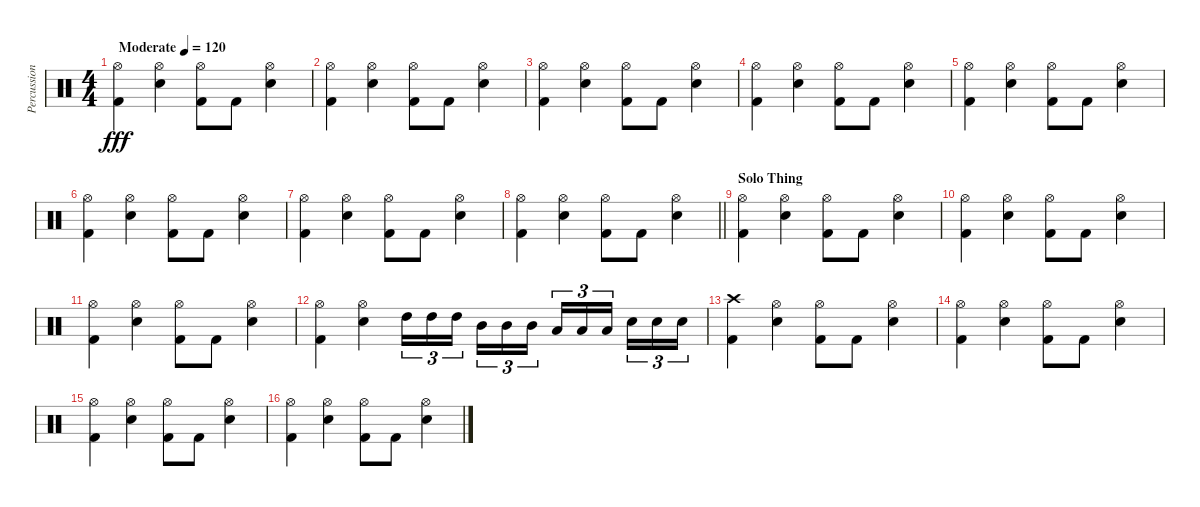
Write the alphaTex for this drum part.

\track ("Percussion" "Percussion") {instrument percussion}
\staff {score}
\articulation defaults
\ts (4 4)
\tempo (120 "Moderate")
\clef neutral
\ks c
("Hi-Hat (open)" "Kick (hit) 2").4{dy fff} ("Hi-Hat (open)" "Snare (hit) 2").4 ("Hi-Hat (open)" "Kick (hit) 2").8 "Kick (hit) 2".8 ("Hi-Hat (open)" "Snare (hit) 2").4 |
("Hi-Hat (open)" "Kick (hit) 2").4 ("Hi-Hat (open)" "Snare (hit) 2").4 ("Hi-Hat (open)" "Kick (hit) 2").8 "Kick (hit) 2".8 ("Hi-Hat (open)" "Snare (hit) 2").4 |
("Hi-Hat (open)" "Kick (hit) 2").4 ("Hi-Hat (open)" "Snare (hit) 2").4 ("Hi-Hat (open)" "Kick (hit) 2").8 "Kick (hit) 2".8 ("Hi-Hat (open)" "Snare (hit) 2").4 |
("Hi-Hat (open)" "Kick (hit) 2").4 ("Hi-Hat (open)" "Snare (hit) 2").4 ("Hi-Hat (open)" "Kick (hit) 2").8 "Kick (hit) 2".8 ("Hi-Hat (open)" "Snare (hit) 2").4 |
("Hi-Hat (open)" "Kick (hit) 2").4 ("Hi-Hat (open)" "Snare (hit) 2").4 ("Hi-Hat (open)" "Kick (hit) 2").8 "Kick (hit) 2".8 ("Hi-Hat (open)" "Snare (hit) 2").4 |
("Hi-Hat (open)" "Kick (hit) 2").4 ("Hi-Hat (open)" "Snare (hit) 2").4 ("Hi-Hat (open)" "Kick (hit) 2").8 "Kick (hit) 2".8 ("Hi-Hat (open)" "Snare (hit) 2").4 |
("Hi-Hat (open)" "Kick (hit) 2").4 ("Hi-Hat (open)" "Snare (hit) 2").4 ("Hi-Hat (open)" "Kick (hit) 2").8 "Kick (hit) 2".8 ("Hi-Hat (open)" "Snare (hit) 2").4 |
\barLineRight lightlight
("Hi-Hat (open)" "Kick (hit) 2").4 ("Hi-Hat (open)" "Snare (hit) 2").4 ("Hi-Hat (open)" "Kick (hit) 2").8 "Kick (hit) 2".8 ("Hi-Hat (open)" "Snare (hit) 2").4 |
\section ("" "Solo Thing")
("Hi-Hat (open)" "Kick (hit) 2").4 ("Hi-Hat (open)" "Snare (hit) 2").4 ("Hi-Hat (open)" "Kick (hit) 2").8 "Kick (hit) 2".8 ("Hi-Hat (open)" "Snare (hit) 2").4 |
("Hi-Hat (open)" "Kick (hit) 2").4 ("Hi-Hat (open)" "Snare (hit) 2").4 ("Hi-Hat (open)" "Kick (hit) 2").8 "Kick (hit) 2".8 ("Hi-Hat (open)" "Snare (hit) 2").4 |
("Hi-Hat (open)" "Kick (hit) 2").4 ("Hi-Hat (open)" "Snare (hit) 2").4 ("Hi-Hat (open)" "Kick (hit) 2").8 "Kick (hit) 2".8 ("Hi-Hat (open)" "Snare (hit) 2").4 |
("Hi-Hat (open)" "Kick (hit) 2").4 ("Hi-Hat (open)" "Snare (hit) 2").4 "High Tom (hit)".16{tu (3 2)} "High Tom (hit)".16{tu (3 2)} "High Tom (hit)".16{tu (3 2) beam splitsecondary} "Mid Tom (hit)".16{tu (3 2)} "Mid Tom (hit)".16{tu (3 2)} "Mid Tom (hit)".16{tu (3 2)} "Low Tom (hit)".16{tu (3 2)} "Low Tom (hit)".16{tu (3 2)} "Low Tom (hit)".16{tu (3 2) beam splitsecondary} "Snare (hit) 2".16{tu (3 2)} "Snare (hit) 2".16{tu (3 2)} "Snare (hit) 2".16{tu (3 2)} |
("Crash high (hit)" "Kick (hit) 2").4 ("Hi-Hat (open)" "Snare (hit) 2").4 ("Hi-Hat (open)" "Kick (hit) 2").8 "Kick (hit) 2".8 ("Hi-Hat (open)" "Snare (hit) 2").4 |
("Hi-Hat (open)" "Kick (hit) 2").4 ("Hi-Hat (open)" "Snare (hit) 2").4 ("Hi-Hat (open)" "Kick (hit) 2").8 "Kick (hit) 2".8 ("Hi-Hat (open)" "Snare (hit) 2").4 |
("Hi-Hat (open)" "Kick (hit) 2").4 ("Hi-Hat (open)" "Snare (hit) 2").4 ("Hi-Hat (open)" "Kick (hit) 2").8 "Kick (hit) 2".8 ("Hi-Hat (open)" "Snare (hit) 2").4 |
("Hi-Hat (open)" "Kick (hit) 2").4 ("Hi-Hat (open)" "Snare (hit) 2").4 ("Hi-Hat (open)" "Kick (hit) 2").8 "Kick (hit) 2".8 ("Hi-Hat (open)" "Snare (hit) 2").4
